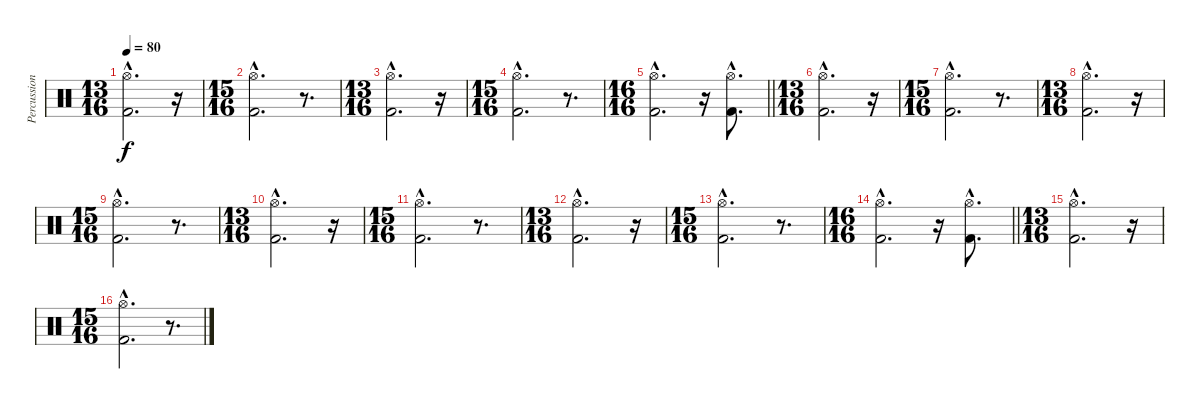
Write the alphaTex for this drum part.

\track ("Percussion" "Percussion") {instrument percussion}
\staff {score}
\articulation defaults
\ts (13 16)
\tempo 80
\clef neutral
\ks c
("Hi-Hat (open)"{hac} "Kick (hit) 2"{hac}).2{d dy f} r.16 |
\ts (15 16)
("Hi-Hat (open)"{hac} "Kick (hit) 2"{hac}).2{d} r.8{d} |
\ts (13 16)
("Hi-Hat (open)"{hac} "Kick (hit) 2"{hac}).2{d} r.16 |
\ts (15 16)
("Hi-Hat (open)"{hac} "Kick (hit) 2"{hac}).2{d} r.8{d} |
\ts (16 16)
\barLineRight lightlight
("Hi-Hat (open)"{hac} "Kick (hit) 2"{hac}).2{d} r.16 ("Hi-Hat (open)"{hac} "Kick (hit) 2"{hac}).8{d} |
\ts (13 16)
\section ("" "")
("Hi-Hat (open)"{hac} "Kick (hit) 2"{hac}).2{d} r.16 |
\ts (15 16)
("Hi-Hat (open)"{hac} "Kick (hit) 2"{hac}).2{d} r.8{d} |
\ts (13 16)
("Hi-Hat (open)"{hac} "Kick (hit) 2"{hac}).2{d} r.16 |
\ts (15 16)
("Hi-Hat (open)"{hac} "Kick (hit) 2"{hac}).2{d} r.8{d} |
\ts (13 16)
("Hi-Hat (open)"{hac} "Kick (hit) 2"{hac}).2{d} r.16 |
\ts (15 16)
("Hi-Hat (open)"{hac} "Kick (hit) 2"{hac}).2{d} r.8{d} |
\ts (13 16)
("Hi-Hat (open)"{hac} "Kick (hit) 2"{hac}).2{d} r.16 |
\ts (15 16)
("Hi-Hat (open)"{hac} "Kick (hit) 2"{hac}).2{d} r.8{d} |
\ts (16 16)
\barLineRight lightlight
("Hi-Hat (open)"{hac} "Kick (hit) 2"{hac}).2{d} r.16 ("Hi-Hat (open)"{hac} "Kick (hit) 2"{hac}).8{d} |
\ts (13 16)
\section ("" "")
("Hi-Hat (open)"{hac} "Kick (hit) 2"{hac}).2{d} r.16 |
\ts (15 16)
("Hi-Hat (open)"{hac} "Kick (hit) 2"{hac}).2{d} r.8{d}
